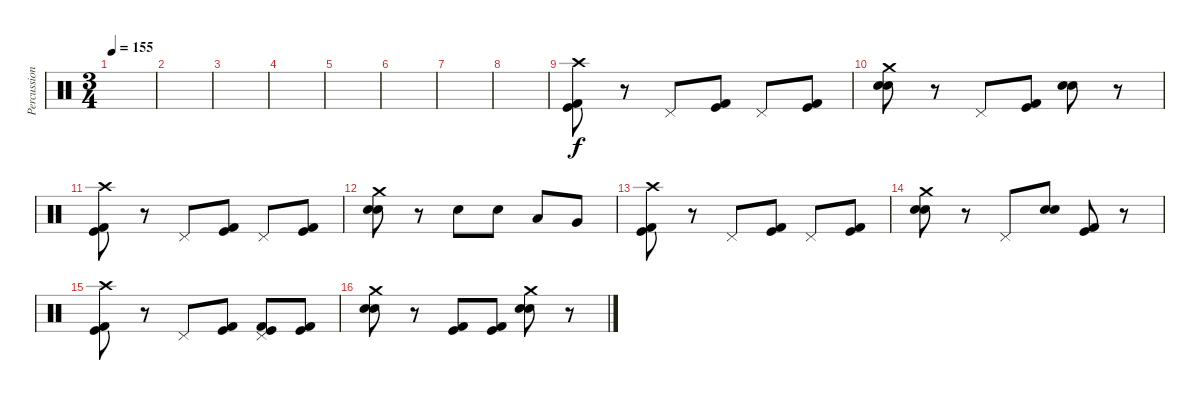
\track ("Percussion" "Percussion") {instrument percussion}
\staff {score}
\articulation defaults
\ts (3 4)
\tempo 155
\clef neutral
\ks c
|
|
|
|
|
|
|
|
("Crash high (hit)" "Kick (hit)" "Kick (hit) 2").8 r.8 "Pedal Hi-Hat (hit)".8 ("Kick (hit)" "Kick (hit) 2").8 "Pedal Hi-Hat (hit)".8 ("Kick (hit)" "Kick (hit) 2").8 |
("Crash medium (hit)" "Electric Snare (hit)" "Electric Snare (hit)").8 r.8 "Pedal Hi-Hat (hit)".8 ("Kick (hit)" "Kick (hit) 2").8 ("Electric Snare (hit)" "Electric Snare (hit)").8 r.8 |
("Crash high (hit)" "Kick (hit)" "Kick (hit) 2").8 r.8 "Pedal Hi-Hat (hit)".8 ("Kick (hit)" "Kick (hit) 2").8 "Pedal Hi-Hat (hit)".8 ("Kick (hit)" "Kick (hit) 2").8 |
("Crash medium (hit)" "Electric Snare (hit)" "Electric Snare (hit)").8 r.8 "Electric Snare (hit)".8 "Electric Snare (hit)".8 "Low Tom (hit)".8 "Very Low Tom (hit)".8 |
("Crash high (hit)" "Kick (hit)" "Kick (hit) 2").8 r.8 "Pedal Hi-Hat (hit)".8 ("Kick (hit)" "Kick (hit) 2").8 "Pedal Hi-Hat (hit)".8 ("Kick (hit)" "Kick (hit) 2").8 |
("Crash medium (hit)" "Electric Snare (hit)" "Electric Snare (hit)").8 r.8 "Pedal Hi-Hat (hit)".8 ("Electric Snare (hit)" "Electric Snare (hit)").8 ("Kick (hit)" "Kick (hit) 2").8 r.8 |
("Crash high (hit)" "Kick (hit)" "Kick (hit) 2").8 r.8 "Pedal Hi-Hat (hit)".8 ("Kick (hit)" "Kick (hit) 2").8 ("Pedal Hi-Hat (hit)" "Kick (hit)" "Kick (hit) 2").8 ("Kick (hit)" "Kick (hit) 2").8 |
("Crash medium (hit)" "Electric Snare (hit)" "Electric Snare (hit)").8 r.8 ("Kick (hit)" "Kick (hit) 2").8 ("Kick (hit)" "Kick (hit) 2").8 ("Crash medium (hit)" "Electric Snare (hit)" "Electric Snare (hit)").8 r.8
